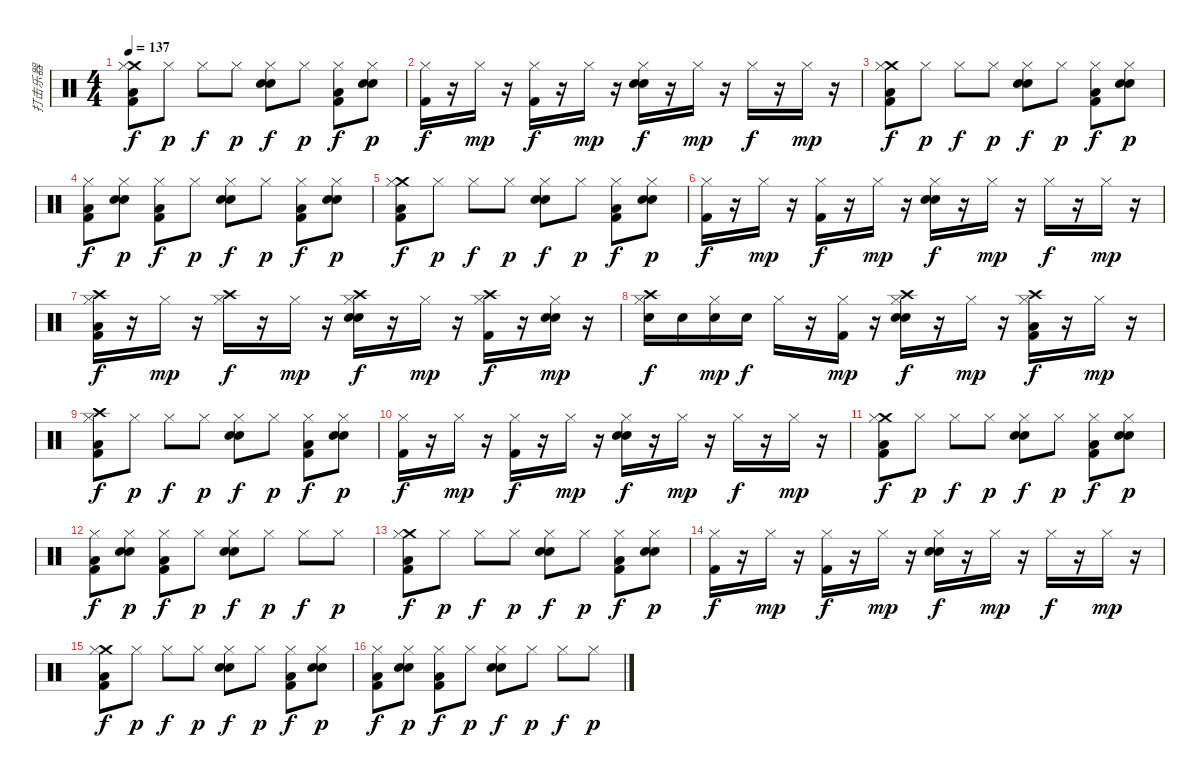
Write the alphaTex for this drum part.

\track ("打击乐器" "打击乐器") {instrument percussion}
\staff {score}
\articulation defaults
\ts (4 4)
\tempo 137
\clef neutral
\ks c
("Low Floor Tom (hit)" "Kick (hit) 2" "Crash medium (hit)" "Hi-Hat (closed)").8{dy f} "Hi-Hat (closed)".8{dy p} "Hi-Hat (closed)".8{dy f} "Hi-Hat (closed)".8{dy p} ("Hand Clap (hit)" "Electric Snare (hit)" "Hi-Hat (closed)").8{dy f} "Hi-Hat (closed)".8{dy p} ("Low Floor Tom (hit)" "Kick (hit) 2" "Hi-Hat (closed)").8{dy f} ("Hand Clap (hit)" "Electric Snare (hit)" "Hi-Hat (closed)").8{dy p} |
("Kick (hit) 2" "Hi-Hat (closed)").16{dy f} r.16 "Hi-Hat (closed)".16{dy mp} r.16 ("Kick (hit) 2" "Hi-Hat (closed)").16{dy f} r.16 "Hi-Hat (closed)".16{dy mp} r.16 ("Hand Clap (hit)" "Electric Snare (hit)" "Hi-Hat (closed)").16{dy f} r.16 "Hi-Hat (closed)".16{dy mp} r.16 "Hi-Hat (closed)".16{dy f} r.16 "Hi-Hat (closed)".16{dy mp} r.16 |
("Low Floor Tom (hit)" "Kick (hit) 2" "Crash medium (hit)" "Hi-Hat (closed)").8{dy f} "Hi-Hat (closed)".8{dy p} "Hi-Hat (closed)".8{dy f} "Hi-Hat (closed)".8{dy p} ("Hand Clap (hit)" "Electric Snare (hit)" "Hi-Hat (closed)").8{dy f} "Hi-Hat (closed)".8{dy p} ("Low Floor Tom (hit)" "Kick (hit) 2" "Hi-Hat (closed)").8{dy f} ("Hand Clap (hit)" "Electric Snare (hit)" "Hi-Hat (closed)").8{dy p} |
("Low Floor Tom (hit)" "Kick (hit) 2" "Hi-Hat (closed)").8{dy f} ("Hand Clap (hit)" "Electric Snare (hit)" "Hi-Hat (closed)").8{dy p} ("Low Floor Tom (hit)" "Kick (hit) 2" "Hi-Hat (closed)").8{dy f} "Hi-Hat (closed)".8{dy p} ("Hand Clap (hit)" "Electric Snare (hit)" "Hi-Hat (closed)").8{dy f} "Hi-Hat (closed)".8{dy p} ("Low Floor Tom (hit)" "Kick (hit) 2" "Hi-Hat (closed)").8{dy f} ("Hand Clap (hit)" "Electric Snare (hit)" "Hi-Hat (closed)").8{dy p} |
("Low Floor Tom (hit)" "Kick (hit) 2" "Crash medium (hit)" "Hi-Hat (closed)").8{dy f} "Hi-Hat (closed)".8{dy p} "Hi-Hat (closed)".8{dy f} "Hi-Hat (closed)".8{dy p} ("Hand Clap (hit)" "Electric Snare (hit)" "Hi-Hat (closed)").8{dy f} "Hi-Hat (closed)".8{dy p} ("Low Floor Tom (hit)" "Kick (hit) 2" "Hi-Hat (closed)").8{dy f} ("Hand Clap (hit)" "Electric Snare (hit)" "Hi-Hat (closed)").8{dy p} |
("Kick (hit) 2" "Hi-Hat (closed)").16{dy f} r.16 "Hi-Hat (closed)".16{dy mp} r.16 ("Kick (hit) 2" "Hi-Hat (closed)").16{dy f} r.16 "Hi-Hat (closed)".16{dy mp} r.16 ("Hand Clap (hit)" "Electric Snare (hit)" "Hi-Hat (closed)").16{dy f} r.16 "Hi-Hat (closed)".16{dy mp} r.16 "Hi-Hat (closed)".16{dy f} r.16 "Hi-Hat (closed)".16{dy mp} r.16 |
("Low Floor Tom (hit)" "Kick (hit) 2" "Crash high (hit)" "Hi-Hat (closed)").16{dy f} r.16 "Hi-Hat (closed)".16{dy mp} r.16 ("Crash high (hit)" "Hi-Hat (closed)").16{dy f} r.16 "Hi-Hat (closed)".16{dy mp} r.16 ("Hand Clap (hit)" "Electric Snare (hit)" "Crash high (hit)" "Hi-Hat (closed)").16{dy f} r.16 "Hi-Hat (closed)".16{dy mp} r.16 ("Kick (hit) 2" "Crash high (hit)" "Hi-Hat (closed)").16{dy f} r.16 ("Hand Clap (hit)" "Electric Snare (hit)" "Hi-Hat (closed)").16{dy mp} r.16 |
("Electric Snare (hit)" "Crash high (hit)" "Hi-Hat (closed)").16{dy f} "Electric Snare (hit)".16 ("Electric Snare (hit)" "Hi-Hat (closed)").16{dy mp} "Electric Snare (hit)".16{dy f} "Hi-Hat (closed)".16 r.16 ("Kick (hit) 2" "Hi-Hat (closed)").16{dy mp} r.16 ("Hand Clap (hit)" "Electric Snare (hit)" "Crash high (hit)" "Hi-Hat (closed)").16{dy f} r.16 "Hi-Hat (closed)".16{dy mp} r.16 ("Low Tom (hit)" "Kick (hit) 2" "Crash high (hit)" "Hi-Hat (closed)").16{dy f} r.16 "Hi-Hat (closed)".16{dy mp} r.16 |
("Low Floor Tom (hit)" "Kick (hit) 2" "Crash high (hit)" "Hi-Hat (closed)").8{dy f} "Hi-Hat (closed)".8{dy p} "Hi-Hat (closed)".8{dy f} "Hi-Hat (closed)".8{dy p} ("Hand Clap (hit)" "Electric Snare (hit)" "Hi-Hat (closed)").8{dy f} "Hi-Hat (closed)".8{dy p} ("Low Floor Tom (hit)" "Kick (hit) 2" "Hi-Hat (closed)").8{dy f} ("Hand Clap (hit)" "Electric Snare (hit)" "Hi-Hat (closed)").8{dy p} |
("Kick (hit) 2" "Hi-Hat (closed)").16{dy f} r.16 "Hi-Hat (closed)".16{dy mp} r.16 ("Kick (hit) 2" "Hi-Hat (closed)").16{dy f} r.16 "Hi-Hat (closed)".16{dy mp} r.16 ("Hand Clap (hit)" "Electric Snare (hit)" "Hi-Hat (closed)").16{dy f} r.16 "Hi-Hat (closed)".16{dy mp} r.16 "Hi-Hat (closed)".16{dy f} r.16 "Hi-Hat (closed)".16{dy mp} r.16 |
("Low Floor Tom (hit)" "Kick (hit) 2" "Crash medium (hit)" "Hi-Hat (closed)").8{dy f} "Hi-Hat (closed)".8{dy p} "Hi-Hat (closed)".8{dy f} "Hi-Hat (closed)".8{dy p} ("Hand Clap (hit)" "Electric Snare (hit)" "Hi-Hat (closed)").8{dy f} "Hi-Hat (closed)".8{dy p} ("Low Floor Tom (hit)" "Kick (hit) 2" "Hi-Hat (closed)").8{dy f} ("Hand Clap (hit)" "Electric Snare (hit)" "Hi-Hat (closed)").8{dy p} |
("Low Floor Tom (hit)" "Kick (hit) 2" "Hi-Hat (closed)").8{dy f} ("Hand Clap (hit)" "Electric Snare (hit)" "Hi-Hat (closed)").8{dy p} ("Low Floor Tom (hit)" "Kick (hit) 2" "Hi-Hat (closed)").8{dy f} "Hi-Hat (closed)".8{dy p} ("Hand Clap (hit)" "Electric Snare (hit)" "Hi-Hat (closed)").8{dy f} "Hi-Hat (closed)".8{dy p} "Hi-Hat (closed)".8{dy f} "Hi-Hat (closed)".8{dy p} |
("Low Floor Tom (hit)" "Kick (hit) 2" "Crash medium (hit)" "Hi-Hat (closed)").8{dy f} "Hi-Hat (closed)".8{dy p} "Hi-Hat (closed)".8{dy f} "Hi-Hat (closed)".8{dy p} ("Hand Clap (hit)" "Electric Snare (hit)" "Hi-Hat (closed)").8{dy f} "Hi-Hat (closed)".8{dy p} ("Low Floor Tom (hit)" "Kick (hit) 2" "Hi-Hat (closed)").8{dy f} ("Hand Clap (hit)" "Electric Snare (hit)" "Hi-Hat (closed)").8{dy p} |
("Kick (hit) 2" "Hi-Hat (closed)").16{dy f} r.16 "Hi-Hat (closed)".16{dy mp} r.16 ("Kick (hit) 2" "Hi-Hat (closed)").16{dy f} r.16 "Hi-Hat (closed)".16{dy mp} r.16 ("Hand Clap (hit)" "Electric Snare (hit)" "Hi-Hat (closed)").16{dy f} r.16 "Hi-Hat (closed)".16{dy mp} r.16 "Hi-Hat (closed)".16{dy f} r.16 "Hi-Hat (closed)".16{dy mp} r.16 |
("Low Floor Tom (hit)" "Kick (hit) 2" "Crash medium (hit)" "Hi-Hat (closed)").8{dy f} "Hi-Hat (closed)".8{dy p} "Hi-Hat (closed)".8{dy f} "Hi-Hat (closed)".8{dy p} ("Hand Clap (hit)" "Electric Snare (hit)" "Hi-Hat (closed)").8{dy f} "Hi-Hat (closed)".8{dy p} ("Low Floor Tom (hit)" "Kick (hit) 2" "Hi-Hat (closed)").8{dy f} ("Hand Clap (hit)" "Electric Snare (hit)" "Hi-Hat (closed)").8{dy p} |
("Low Floor Tom (hit)" "Kick (hit) 2" "Hi-Hat (closed)").8{dy f} ("Hand Clap (hit)" "Electric Snare (hit)" "Hi-Hat (closed)").8{dy p} ("Low Floor Tom (hit)" "Kick (hit) 2" "Hi-Hat (closed)").8{dy f} "Hi-Hat (closed)".8{dy p} ("Hand Clap (hit)" "Electric Snare (hit)" "Hi-Hat (closed)").8{dy f} "Hi-Hat (closed)".8{dy p} "Hi-Hat (closed)".8{dy f} "Hi-Hat (closed)".8{dy p}
